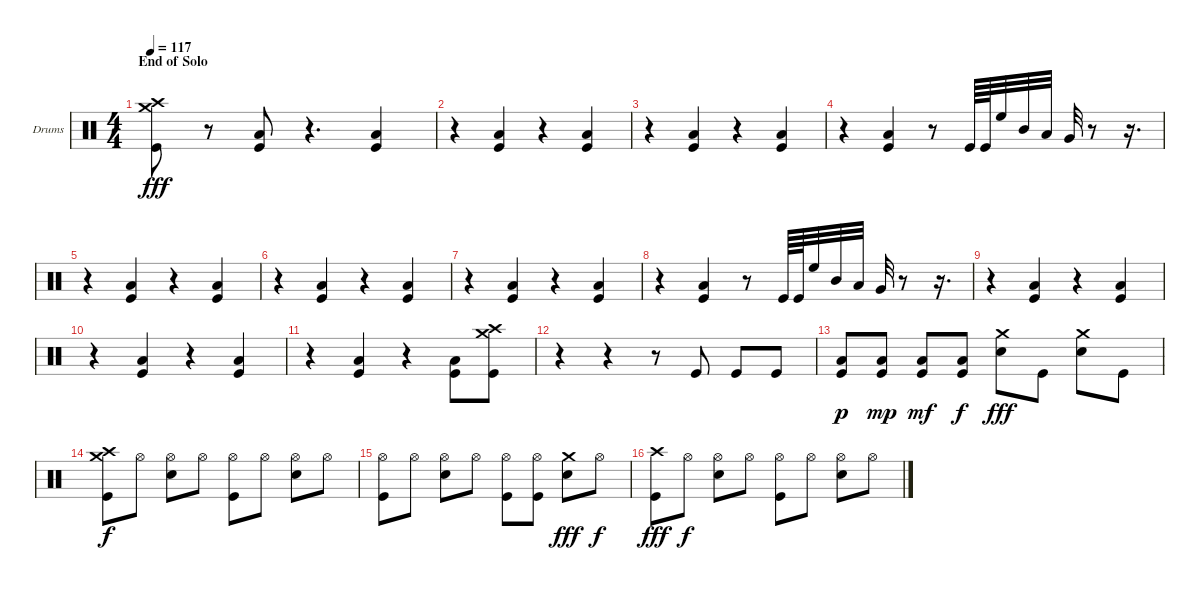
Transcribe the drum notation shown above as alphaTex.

\bracketExtendMode groupsimilarinstruments
\firstSystemTrackNameOrientation horizontal
\otherSystemsTrackNameOrientation horizontal
\track ("Drumkit" "Drums") {instrument percussion}
\staff {score}
\articulation defaults
\ts (4 4)
\section ("" "End of Solo")
\tempo 117
\clef neutral
\ks c
("Crash high (hit)" "Crash medium (hit)" "Kick (hit)").8{dy fff} r.8 ("Low Tom (hit)" "Kick (hit)").8 r.4{d} ("Low Tom (hit)" "Kick (hit)").4 |
r.4 ("Low Tom (hit)" "Kick (hit)").4 r.4 ("Low Tom (hit)" "Kick (hit)").4 |
r.4 ("Low Tom (hit)" "Kick (hit)").4 r.4 ("Low Tom (hit)" "Kick (hit)").4 |
r.4 ("Low Tom (hit)" "Kick (hit)").4 r.8 "Kick (hit)".64 "Kick (hit)".64 "High Floor Tom (hit)".32 "Mid Tom (hit)".32 "Low Tom (hit)".32 "Very Low Tom (hit)".32 r.8 r.16{d} |
r.4 ("Low Tom (hit)" "Kick (hit)").4 r.4 ("Low Tom (hit)" "Kick (hit)").4 |
r.4 ("Low Tom (hit)" "Kick (hit)").4 r.4 ("Low Tom (hit)" "Kick (hit)").4 |
r.4 ("Low Tom (hit)" "Kick (hit)").4 r.4 ("Low Tom (hit)" "Kick (hit)").4 |
r.4 ("Low Tom (hit)" "Kick (hit)").4 r.8 "Kick (hit)".64 "Kick (hit)".64 "High Floor Tom (hit)".32 "Mid Tom (hit)".32 "Low Tom (hit)".32 "Very Low Tom (hit)".32 r.8 r.16{d} |
r.4 ("Low Tom (hit)" "Kick (hit)").4 r.4 ("Low Tom (hit)" "Kick (hit)").4 |
r.4 ("Low Tom (hit)" "Kick (hit)").4 r.4 ("Low Tom (hit)" "Kick (hit)").4 |
r.4 ("Low Tom (hit)" "Kick (hit)").4 r.4 ("Low Tom (hit)" "Kick (hit)").8 ("Crash medium (hit)" "Crash high (hit)" "Kick (hit)").8 |
r.4 r.4 r.8 "Kick (hit)".8 "Kick (hit)".8 "Kick (hit)".8 |
("Low Tom (hit)" "Kick (hit)").8{dy p} ("Low Tom (hit)" "Kick (hit)").8{dy mp} ("Low Tom (hit)" "Kick (hit)").8{dy mf} ("Low Tom (hit)" "Kick (hit)").8{dy f} ("Crash medium (hit)" "Snare (hit) 2").8{dy fff} "Kick (hit)".8 ("Crash medium (hit)" "Snare (hit) 2").8 "Kick (hit)".8 |
("Crash medium (hit)" "Crash high (hit)" "Kick (hit)").8{dy f} "Hi-Hat (open)".8 ("Hi-Hat (open)" "Snare (hit) 2").8 "Hi-Hat (open)".8 ("Hi-Hat (open)" "Kick (hit)").8 "Hi-Hat (open)".8 ("Hi-Hat (open)" "Snare (hit) 2").8 "Hi-Hat (open)".8 |
("Hi-Hat (open)" "Kick (hit)").8 "Hi-Hat (open)".8 ("Hi-Hat (open)" "Snare (hit) 2").8 "Hi-Hat (open)".8 ("Hi-Hat (open)" "Kick (hit)").8 ("Hi-Hat (open)" "Kick (hit)").8 ("Crash medium (hit)" "Snare (hit) 2").8{dy fff} "Hi-Hat (open)".8{dy f} |
("Crash high (hit)" "Kick (hit)").8{dy fff} "Hi-Hat (open)".8{dy f} ("Hi-Hat (open)" "Snare (hit) 2").8 "Hi-Hat (open)".8 ("Hi-Hat (open)" "Kick (hit)").8 "Hi-Hat (open)".8 ("Hi-Hat (open)" "Snare (hit) 2").8 "Hi-Hat (open)".8
